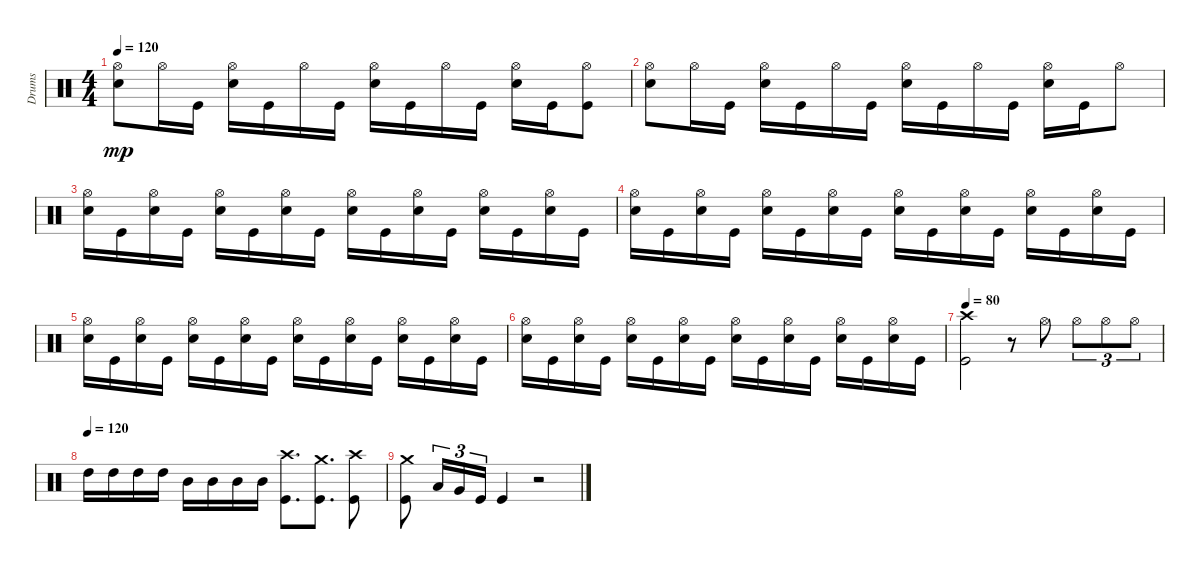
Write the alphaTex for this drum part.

\track ("Drums" "Drums") {instrument percussion}
\staff {score}
\articulation defaults
\ts (4 4)
\tempo 120
\clef neutral
\ks c
("Hi-Hat (open)" "Snare (hit) 2").8{dy mp} "Hi-Hat (open)".16 "Kick (hit)".16 ("Hi-Hat (open)" "Snare (hit) 2").16 "Kick (hit)".16 "Hi-Hat (open)".16 "Kick (hit)".16 ("Hi-Hat (open)" "Snare (hit) 2").16 "Kick (hit)".16 "Hi-Hat (open)".16 "Kick (hit)".16 ("Hi-Hat (open)" "Snare (hit) 2").16 "Kick (hit)".16 ("Hi-Hat (open)" "Kick (hit)").8 |
("Hi-Hat (open)" "Snare (hit) 2").8 "Hi-Hat (open)".16 "Kick (hit)".16 ("Hi-Hat (open)" "Snare (hit) 2").16 "Kick (hit)".16 "Hi-Hat (open)".16 "Kick (hit)".16 ("Hi-Hat (open)" "Snare (hit) 2").16 "Kick (hit)".16 "Hi-Hat (open)".16 "Kick (hit)".16 ("Hi-Hat (open)" "Snare (hit) 2").16 "Kick (hit)".16 "Hi-Hat (open)".8 |
("Hi-Hat (open)" "Snare (hit) 2").16 "Kick (hit)".16 ("Hi-Hat (open)" "Snare (hit) 2").16 "Kick (hit)".16 ("Hi-Hat (open)" "Snare (hit) 2").16 "Kick (hit)".16 ("Hi-Hat (open)" "Snare (hit) 2").16 "Kick (hit)".16 ("Hi-Hat (open)" "Snare (hit) 2").16 "Kick (hit)".16 ("Hi-Hat (open)" "Snare (hit) 2").16 "Kick (hit)".16 ("Hi-Hat (open)" "Snare (hit) 2").16 "Kick (hit)".16 ("Hi-Hat (open)" "Snare (hit) 2").16 "Kick (hit)".16 |
("Hi-Hat (open)" "Snare (hit) 2").16 "Kick (hit)".16 ("Hi-Hat (open)" "Snare (hit) 2").16 "Kick (hit)".16 ("Hi-Hat (open)" "Snare (hit) 2").16 "Kick (hit)".16 ("Hi-Hat (open)" "Snare (hit) 2").16 "Kick (hit)".16 ("Hi-Hat (open)" "Snare (hit) 2").16 "Kick (hit)".16 ("Hi-Hat (open)" "Snare (hit) 2").16 "Kick (hit)".16 ("Hi-Hat (open)" "Snare (hit) 2").16 "Kick (hit)".16 ("Hi-Hat (open)" "Snare (hit) 2").16 "Kick (hit)".16 |
("Hi-Hat (open)" "Snare (hit) 2").16 "Kick (hit)".16 ("Hi-Hat (open)" "Snare (hit) 2").16 "Kick (hit)".16 ("Hi-Hat (open)" "Snare (hit) 2").16 "Kick (hit)".16 ("Hi-Hat (open)" "Snare (hit) 2").16 "Kick (hit)".16 ("Hi-Hat (open)" "Snare (hit) 2").16 "Kick (hit)".16 ("Hi-Hat (open)" "Snare (hit) 2").16 "Kick (hit)".16 ("Hi-Hat (open)" "Snare (hit) 2").16 "Kick (hit)".16 ("Hi-Hat (open)" "Snare (hit) 2").16 "Kick (hit)".16 |
("Hi-Hat (open)" "Snare (hit) 2").16 "Kick (hit)".16 ("Hi-Hat (open)" "Snare (hit) 2").16 "Kick (hit)".16 ("Hi-Hat (open)" "Snare (hit) 2").16 "Kick (hit)".16 ("Hi-Hat (open)" "Snare (hit) 2").16 "Kick (hit)".16 ("Hi-Hat (open)" "Snare (hit) 2").16 "Kick (hit)".16 ("Hi-Hat (open)" "Snare (hit) 2").16 "Kick (hit)".16 ("Hi-Hat (open)" "Snare (hit) 2").16 "Kick (hit)".16 ("Hi-Hat (open)" "Snare (hit) 2").16 "Kick (hit)".16 |
\tempo 80
("Crash high (hit)" "Kick (hit)").2 r.8 "Hi-Hat (open)".8 "Hi-Hat (open)".8{tu (3 2)} "Hi-Hat (open)".8{tu (3 2)} "Hi-Hat (open)".8{tu (3 2)} |
\tempo (120)
"High Tom (hit)".16 "High Tom (hit)".16 "High Tom (hit)".16 "High Tom (hit)".16 "Mid Tom (hit)".16 "Mid Tom (hit)".16 "Mid Tom (hit)".16 "Mid Tom (hit)".16 ("Crash high (hit)" "Kick (hit)").8{d} ("Crash medium (hit)" "Kick (hit)").8{d} ("Crash high (hit)" "Kick (hit)").8 |
("Crash medium (hit)" "Kick (hit)").8 "Low Floor Tom (hit)".16{tu (3 2)} "Very Low Tom (hit)".16{tu (3 2)} "Kick (hit)".16{tu (3 2)} "Kick (hit)".4 r.2
